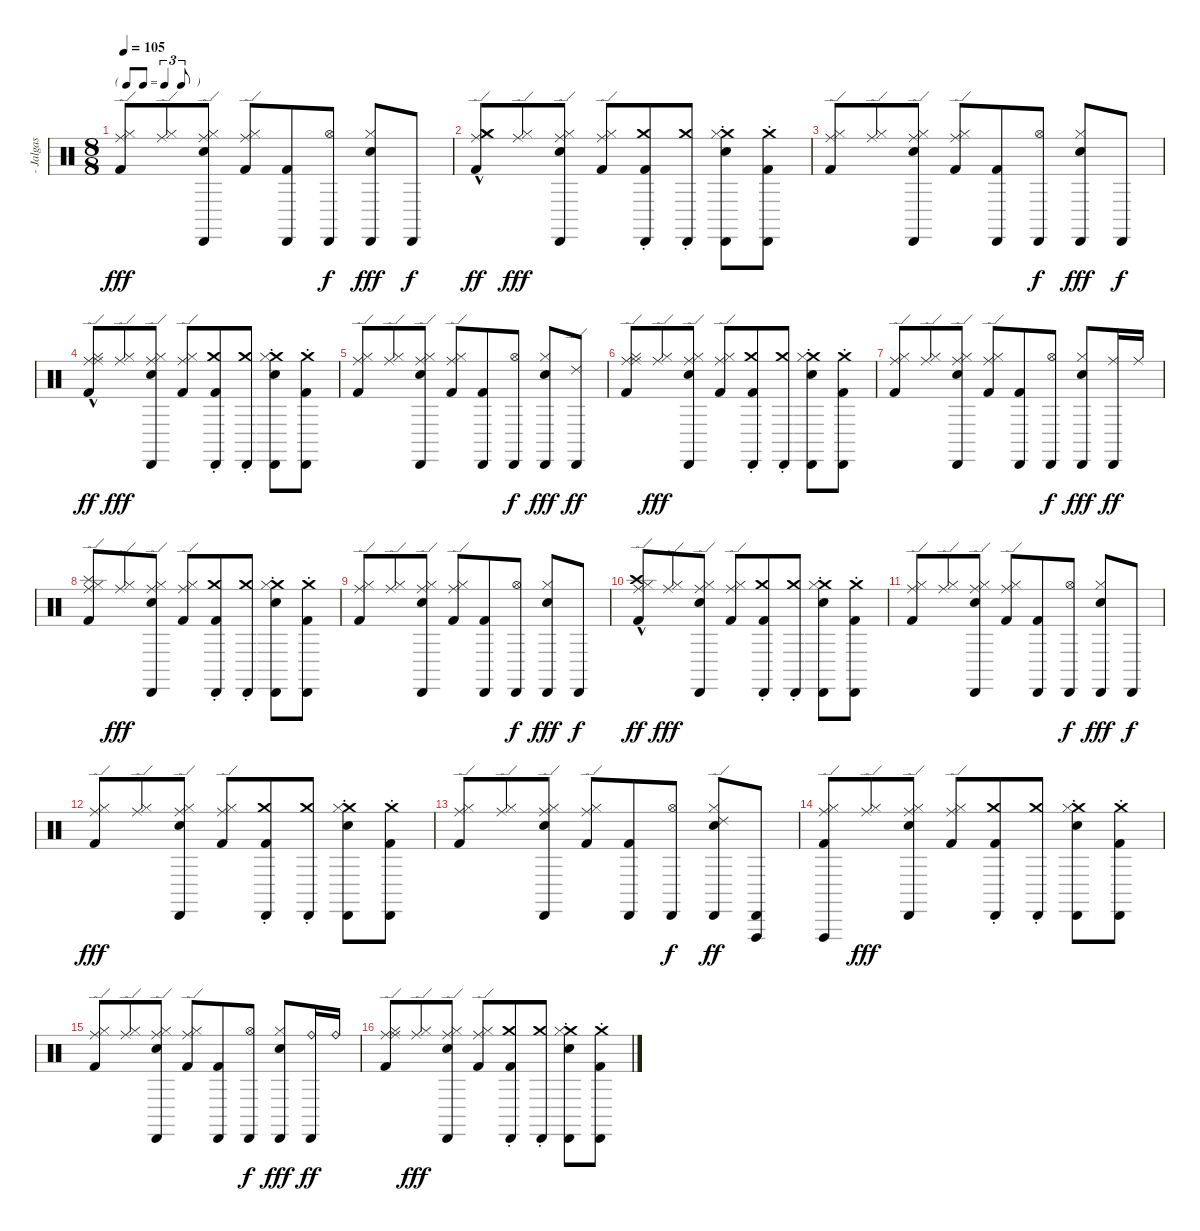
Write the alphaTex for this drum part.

\track (" - Jalgas -" " - Jalgas ") {instrument percussion}
\staff {score}
\articulation defaults
\ts (8 8)
\tf triplet8th
\tempo 105
\clef neutral
\ks c
("Ride (edge)" "Kick (hit) 2" "Hi-Hat (closed)").8{dy fff} ("Ride (edge)" "Hi-Hat (closed)").8 ("Ride (edge)" "Electric Snare (hit)" "Hi-Hat (closed)" "Cabasa (hit)").8 ("Ride (edge)" "Kick (hit) 2" "Hi-Hat (closed)").8 ("Kick (hit) 2" "Cabasa (hit)").8 ("Hi-Hat (open)" "Cabasa (hit)").8{dy f} ("Electric Snare (hit)" "Hi-Hat (closed)" "Cabasa (hit)").8{dy fff} "Cabasa (hit)".8{dy f} |
("Ride (edge)" "Kick (hit) 2" "Hi-Hat (closed)" "Crash medium (hit)"{hac}).8{dy ff} ("Ride (edge)" "Hi-Hat (closed)").8{dy fff} ("Ride (edge)" "Electric Snare (hit)" "Hi-Hat (closed)" "Cabasa (hit)").8 ("Ride (edge)" "Kick (hit) 2" "Hi-Hat (closed)").8 ("Crash medium (choke)" "Kick (hit) 2" "Cabasa (hit)").8 ("Crash medium (choke)" "Cabasa (hit)").8 ("Crash medium (choke)" "Electric Snare (hit)" "Hi-Hat (closed)" "Cabasa (hit)").8 ("Crash medium (choke)" "Kick (hit) 2" "Cabasa (hit)").8 |
("Ride (edge)" "Kick (hit) 2" "Hi-Hat (closed)").8 ("Ride (edge)" "Hi-Hat (closed)").8 ("Ride (edge)" "Electric Snare (hit)" "Hi-Hat (closed)" "Cabasa (hit)").8 ("Ride (edge)" "Kick (hit) 2" "Hi-Hat (closed)").8 ("Kick (hit) 2" "Cabasa (hit)").8 ("Hi-Hat (open)" "Cabasa (hit)").8{dy f} ("Electric Snare (hit)" "Hi-Hat (closed)" "Cabasa (hit)").8{dy fff} "Cabasa (hit)".8{dy f} |
("Ride (edge)" "Kick (hit) 2" "Hi-Hat (closed)" "Ride (middle)"{hac}).8{dy ff} ("Ride (edge)" "Hi-Hat (closed)").8{dy fff} ("Ride (edge)" "Electric Snare (hit)" "Hi-Hat (closed)" "Cabasa (hit)").8 ("Ride (edge)" "Kick (hit) 2" "Hi-Hat (closed)").8 ("Crash medium (choke)" "Kick (hit) 2" "Cabasa (hit)").8 ("Crash medium (choke)" "Cabasa (hit)").8 ("Crash medium (choke)" "Electric Snare (hit)" "Hi-Hat (closed)" "Cabasa (hit)").8 ("Crash medium (choke)" "Kick (hit) 2" "Cabasa (hit)").8 |
("Ride (edge)" "Kick (hit) 2" "Hi-Hat (closed)").8 ("Ride (edge)" "Hi-Hat (closed)").8 ("Ride (edge)" "Electric Snare (hit)" "Hi-Hat (closed)" "Cabasa (hit)").8 ("Ride (edge)" "Kick (hit) 2" "Hi-Hat (closed)").8 ("Kick (hit) 2" "Cabasa (hit)").8 ("Hi-Hat (open)" "Cabasa (hit)").8{dy f} ("Electric Snare (hit)" "Hi-Hat (closed)" "Cabasa (hit)").8{dy fff} ("Cabasa (hit)" "Ride (edge) 2").8{dy ff} |
("Ride (edge)" "Kick (hit) 2" "Hi-Hat (closed)" "Ride (middle)").8 ("Ride (edge)" "Hi-Hat (closed)").8{dy fff} ("Ride (edge)" "Electric Snare (hit)" "Hi-Hat (closed)" "Cabasa (hit)").8 ("Ride (edge)" "Kick (hit) 2" "Hi-Hat (closed)").8 ("Crash medium (choke)" "Kick (hit) 2" "Cabasa (hit)").8 ("Crash medium (choke)" "Cabasa (hit)").8 ("Crash medium (choke)" "Electric Snare (hit)" "Hi-Hat (closed)" "Cabasa (hit)").8 ("Crash medium (choke)" "Kick (hit) 2" "Cabasa (hit)").8 |
("Ride (edge)" "Kick (hit) 2" "Hi-Hat (closed)").8 ("Ride (edge)" "Hi-Hat (closed)").8 ("Ride (edge)" "Electric Snare (hit)" "Hi-Hat (closed)" "Cabasa (hit)").8 ("Ride (edge)" "Kick (hit) 2" "Hi-Hat (closed)").8 ("Kick (hit) 2" "Cabasa (hit)").8 ("Hi-Hat (open)" "Cabasa (hit)").8{dy f} ("Electric Snare (hit)" "Hi-Hat (closed)" "Cabasa (hit)").8{dy fff} ("Cabasa (hit)" "Ride (middle)").16{dy ff} "Ride (middle)".16 |
("Ride (edge)" "Kick (hit) 2" "Hi-Hat (closed)" "Splash (hit)").8 ("Ride (edge)" "Hi-Hat (closed)").8{dy fff} ("Ride (edge)" "Electric Snare (hit)" "Hi-Hat (closed)" "Cabasa (hit)").8 ("Ride (edge)" "Kick (hit) 2" "Hi-Hat (closed)").8 ("Crash medium (choke)" "Kick (hit) 2" "Cabasa (hit)").8 ("Crash medium (choke)" "Cabasa (hit)").8 ("Crash medium (choke)" "Electric Snare (hit)" "Hi-Hat (closed)" "Cabasa (hit)").8 ("Crash medium (choke)" "Kick (hit) 2" "Cabasa (hit)").8 |
("Ride (edge)" "Kick (hit) 2" "Hi-Hat (closed)").8 ("Ride (edge)" "Hi-Hat (closed)").8 ("Ride (edge)" "Electric Snare (hit)" "Hi-Hat (closed)" "Cabasa (hit)").8 ("Ride (edge)" "Kick (hit) 2" "Hi-Hat (closed)").8 ("Kick (hit) 2" "Cabasa (hit)").8 ("Hi-Hat (open)" "Cabasa (hit)").8{dy f} ("Electric Snare (hit)" "Hi-Hat (closed)" "Cabasa (hit)").8{dy fff} "Cabasa (hit)".8{dy f} |
("Ride (edge)" "Kick (hit) 2" "Hi-Hat (closed)" "Crash high (hit)"{hac}).8{dy ff} ("Ride (edge)" "Hi-Hat (closed)").8{dy fff} ("Ride (edge)" "Electric Snare (hit)" "Hi-Hat (closed)" "Cabasa (hit)").8 ("Ride (edge)" "Kick (hit) 2" "Hi-Hat (closed)").8 ("Crash medium (choke)" "Kick (hit) 2" "Cabasa (hit)").8 ("Crash medium (choke)" "Cabasa (hit)").8 ("Crash medium (choke)" "Electric Snare (hit)" "Hi-Hat (closed)" "Cabasa (hit)").8 ("Crash medium (choke)" "Kick (hit) 2" "Cabasa (hit)").8 |
("Ride (edge)" "Kick (hit) 2" "Hi-Hat (closed)").8 ("Ride (edge)" "Hi-Hat (closed)").8 ("Ride (edge)" "Electric Snare (hit)" "Hi-Hat (closed)" "Cabasa (hit)").8 ("Ride (edge)" "Kick (hit) 2" "Hi-Hat (closed)").8 ("Kick (hit) 2" "Cabasa (hit)").8 ("Hi-Hat (open)" "Cabasa (hit)").8{dy f} ("Electric Snare (hit)" "Hi-Hat (closed)" "Cabasa (hit)").8{dy fff} "Cabasa (hit)".8{dy f} |
("Ride (edge)" "Kick (hit) 2" "Hi-Hat (closed)").8{dy fff} ("Ride (edge)" "Hi-Hat (closed)").8 ("Ride (edge)" "Electric Snare (hit)" "Hi-Hat (closed)" "Cabasa (hit)").8 ("Ride (edge)" "Kick (hit) 2" "Hi-Hat (closed)").8 ("Crash medium (choke)" "Kick (hit) 2" "Cabasa (hit)").8 ("Crash medium (choke)" "Cabasa (hit)").8 ("Crash medium (choke)" "Electric Snare (hit)" "Hi-Hat (closed)" "Cabasa (hit)").8 ("Crash medium (choke)" "Kick (hit) 2" "Cabasa (hit)").8 |
("Ride (edge)" "Kick (hit) 2" "Hi-Hat (closed)").8 ("Ride (edge)" "Hi-Hat (closed)").8 ("Ride (edge)" "Electric Snare (hit)" "Hi-Hat (closed)" "Cabasa (hit)").8 ("Ride (edge)" "Kick (hit) 2" "Hi-Hat (closed)").8 ("Kick (hit) 2" "Cabasa (hit)").8 ("Hi-Hat (open)" "Cabasa (hit)").8{dy f} ("Electric Snare (hit)" "Hi-Hat (closed)" "Cabasa (hit)" "Ride (edge) 2").8{dy ff} ("Cabasa (hit)" "Vibraslap (hit)").8 |
("Ride (edge)" "Kick (hit) 2" "Hi-Hat (closed)" "Vibraslap (hit)").8 ("Ride (edge)" "Hi-Hat (closed)").8{dy fff} ("Ride (edge)" "Electric Snare (hit)" "Hi-Hat (closed)" "Cabasa (hit)").8 ("Ride (edge)" "Kick (hit) 2" "Hi-Hat (closed)").8 ("Crash medium (choke)" "Kick (hit) 2" "Cabasa (hit)").8 ("Crash medium (choke)" "Cabasa (hit)").8 ("Crash medium (choke)" "Electric Snare (hit)" "Hi-Hat (closed)" "Cabasa (hit)").8 ("Crash medium (choke)" "Kick (hit) 2" "Cabasa (hit)").8 |
("Ride (edge)" "Kick (hit) 2" "Hi-Hat (closed)").8 ("Ride (edge)" "Hi-Hat (closed)").8 ("Ride (edge)" "Electric Snare (hit)" "Hi-Hat (closed)" "Cabasa (hit)").8 ("Ride (edge)" "Kick (hit) 2" "Hi-Hat (closed)").8 ("Kick (hit) 2" "Cabasa (hit)").8 ("Hi-Hat (open)" "Cabasa (hit)").8{dy f} ("Electric Snare (hit)" "Hi-Hat (closed)" "Cabasa (hit)").8{dy fff} ("Cabasa (hit)" "Ride (bell)").16{dy ff} "Ride (bell)".16 |
("Ride (edge)" "Kick (hit) 2" "Hi-Hat (closed)" "Ride (middle)").8 ("Ride (edge)" "Hi-Hat (closed)").8{dy fff} ("Ride (edge)" "Electric Snare (hit)" "Hi-Hat (closed)" "Cabasa (hit)").8 ("Ride (edge)" "Kick (hit) 2" "Hi-Hat (closed)").8 ("Crash medium (choke)" "Kick (hit) 2" "Cabasa (hit)").8 ("Crash medium (choke)" "Cabasa (hit)").8 ("Crash medium (choke)" "Electric Snare (hit)" "Hi-Hat (closed)" "Cabasa (hit)").8 ("Crash medium (choke)" "Kick (hit) 2" "Cabasa (hit)").8
